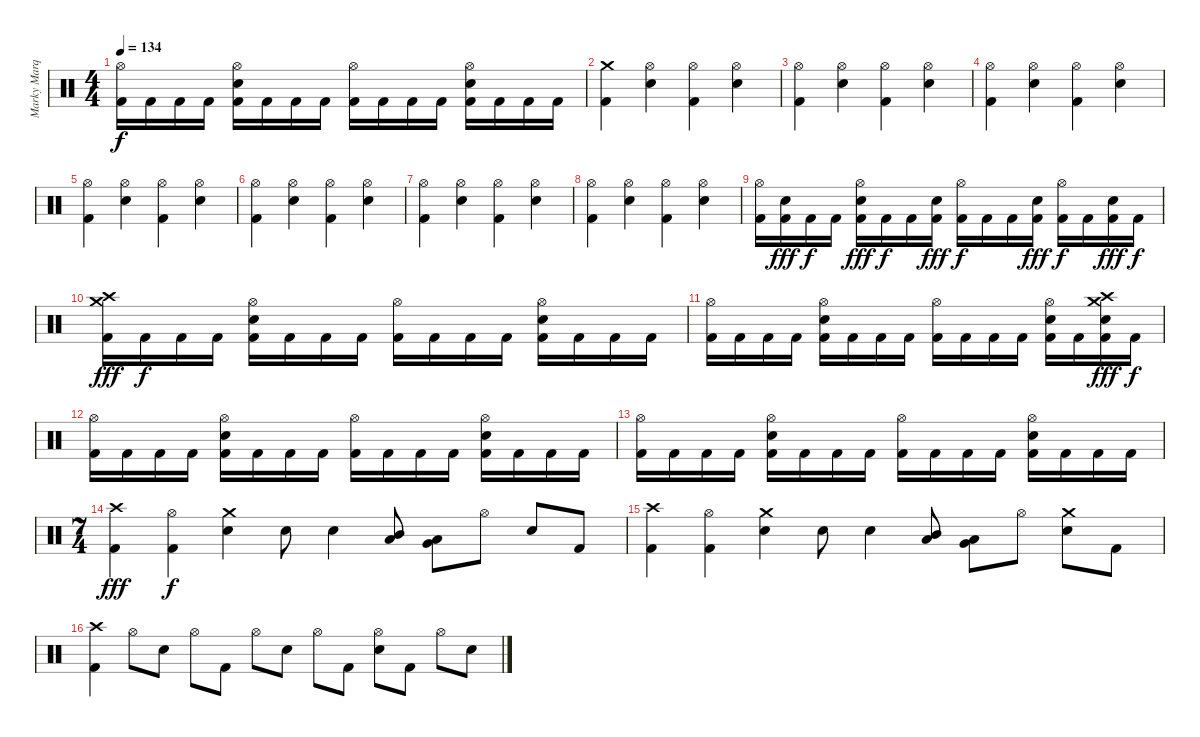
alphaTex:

\track ("Marky Marquis" "Marky Marq") {instrument percussion}
\staff {score}
\articulation defaults
\ts (4 4)
\tempo 134
\clef neutral
\ks c
("Hi-Hat (open)" "Kick (hit) 2").16{dy f} "Kick (hit) 2".16 "Kick (hit) 2".16 "Kick (hit) 2".16 ("Hi-Hat (open)" "Electric Snare (hit)" "Kick (hit) 2").16 "Kick (hit) 2".16 "Kick (hit) 2".16 "Kick (hit) 2".16 ("Hi-Hat (open)" "Kick (hit) 2").16 "Kick (hit) 2".16 "Kick (hit) 2".16 "Kick (hit) 2".16 ("Hi-Hat (open)" "Electric Snare (hit)" "Kick (hit) 2").16 "Kick (hit) 2".16 "Kick (hit) 2".16 "Kick (hit) 2".16 |
("Crash medium (hit)" "Kick (hit) 2").4 ("Hi-Hat (open)" "Electric Snare (hit)").4 ("Hi-Hat (open)" "Kick (hit) 2").4 ("Hi-Hat (open)" "Electric Snare (hit)").4 |
("Hi-Hat (open)" "Kick (hit) 2").4 ("Hi-Hat (open)" "Electric Snare (hit)").4 ("Hi-Hat (open)" "Kick (hit) 2").4 ("Hi-Hat (open)" "Electric Snare (hit)").4 |
("Hi-Hat (open)" "Kick (hit) 2").4 ("Hi-Hat (open)" "Electric Snare (hit)").4 ("Hi-Hat (open)" "Kick (hit) 2").4 ("Hi-Hat (open)" "Electric Snare (hit)").4 |
("Hi-Hat (open)" "Kick (hit) 2").4 ("Hi-Hat (open)" "Electric Snare (hit)").4 ("Hi-Hat (open)" "Kick (hit) 2").4 ("Hi-Hat (open)" "Electric Snare (hit)").4 |
("Hi-Hat (open)" "Kick (hit) 2").4 ("Hi-Hat (open)" "Electric Snare (hit)").4 ("Hi-Hat (open)" "Kick (hit) 2").4 ("Hi-Hat (open)" "Electric Snare (hit)").4 |
("Hi-Hat (open)" "Kick (hit) 2").4 ("Hi-Hat (open)" "Electric Snare (hit)").4 ("Hi-Hat (open)" "Kick (hit) 2").4 ("Hi-Hat (open)" "Electric Snare (hit)").4 |
("Hi-Hat (open)" "Kick (hit) 2").4 ("Hi-Hat (open)" "Electric Snare (hit)").4 ("Hi-Hat (open)" "Kick (hit) 2").4 ("Hi-Hat (open)" "Electric Snare (hit)").4 |
("Hi-Hat (open)" "Kick (hit) 2").16 ("Electric Snare (hit)" "Kick (hit) 2").16{dy fff} "Kick (hit) 2".16{dy f} "Kick (hit) 2".16 ("Hi-Hat (open)" "Electric Snare (hit)" "Kick (hit) 2").16{dy fff} "Kick (hit) 2".16{dy f} "Kick (hit) 2".16 ("Electric Snare (hit)" "Kick (hit) 2").16{dy fff} ("Hi-Hat (open)" "Kick (hit) 2").16{dy f} "Kick (hit) 2".16 "Kick (hit) 2".16 ("Electric Snare (hit)" "Kick (hit) 2").16{dy fff} ("Hi-Hat (open)" "Kick (hit) 2").16{dy f} "Kick (hit) 2".16 ("Electric Snare (hit)" "Kick (hit) 2").16{dy fff} "Kick (hit) 2".16{dy f} |
("Crash high (hit)" "Crash medium (hit)" "Kick (hit) 2").16{dy fff} "Kick (hit) 2".16{dy f} "Kick (hit) 2".16 "Kick (hit) 2".16 ("Hi-Hat (open)" "Electric Snare (hit)" "Kick (hit) 2").16 "Kick (hit) 2".16 "Kick (hit) 2".16 "Kick (hit) 2".16 ("Hi-Hat (open)" "Kick (hit) 2").16 "Kick (hit) 2".16 "Kick (hit) 2".16 "Kick (hit) 2".16 ("Hi-Hat (open)" "Electric Snare (hit)" "Kick (hit) 2").16 "Kick (hit) 2".16 "Kick (hit) 2".16 "Kick (hit) 2".16 |
("Hi-Hat (open)" "Kick (hit) 2").16 "Kick (hit) 2".16 "Kick (hit) 2".16 "Kick (hit) 2".16 ("Hi-Hat (open)" "Electric Snare (hit)" "Kick (hit) 2").16 "Kick (hit) 2".16 "Kick (hit) 2".16 "Kick (hit) 2".16 ("Hi-Hat (open)" "Kick (hit) 2").16 "Kick (hit) 2".16 "Kick (hit) 2".16 "Kick (hit) 2".16 ("Hi-Hat (open)" "Electric Snare (hit)" "Kick (hit) 2").16 "Kick (hit) 2".16 ("Crash high (hit)" "Crash medium (hit)" "Electric Snare (hit)" "Kick (hit) 2").16{dy fff} "Kick (hit) 2".16{dy f} |
("Hi-Hat (open)" "Kick (hit) 2").16 "Kick (hit) 2".16 "Kick (hit) 2".16 "Kick (hit) 2".16 ("Hi-Hat (open)" "Electric Snare (hit)" "Kick (hit) 2").16 "Kick (hit) 2".16 "Kick (hit) 2".16 "Kick (hit) 2".16 ("Hi-Hat (open)" "Kick (hit) 2").16 "Kick (hit) 2".16 "Kick (hit) 2".16 "Kick (hit) 2".16 ("Hi-Hat (open)" "Electric Snare (hit)" "Kick (hit) 2").16 "Kick (hit) 2".16 "Kick (hit) 2".16 "Kick (hit) 2".16 |
("Hi-Hat (open)" "Kick (hit) 2").16 "Kick (hit) 2".16 "Kick (hit) 2".16 "Kick (hit) 2".16 ("Hi-Hat (open)" "Electric Snare (hit)" "Kick (hit) 2").16 "Kick (hit) 2".16 "Kick (hit) 2".16 "Kick (hit) 2".16 ("Hi-Hat (open)" "Kick (hit) 2").16 "Kick (hit) 2".16 "Kick (hit) 2".16 "Kick (hit) 2".16 ("Hi-Hat (open)" "Electric Snare (hit)" "Kick (hit) 2").16 "Kick (hit) 2".16 "Kick (hit) 2".16 "Kick (hit) 2".16 |
\ts (7 4)
("Crash high (hit)" "Kick (hit) 2").4{dy fff} ("Hi-Hat (open)" "Kick (hit) 2").4{dy f} ("Crash medium (hit)" "Electric Snare (hit)").4 "Electric Snare (hit)".8 "Electric Snare (hit)".4 ("Mid Tom (hit)" "Low Tom (hit)").8 ("Low Tom (hit)" "Very Low Tom (hit)").8 "Hi-Hat (open)".8 "Electric Snare (hit)".8 "Kick (hit) 2".8 |
("Crash high (hit)" "Kick (hit) 2").4 ("Hi-Hat (open)" "Kick (hit) 2").4 ("Crash medium (hit)" "Electric Snare (hit)").4 "Electric Snare (hit)".8 "Electric Snare (hit)".4 ("Mid Tom (hit)" "Low Tom (hit)").8 ("Low Tom (hit)" "Very Low Tom (hit)").8 "Hi-Hat (open)".8 ("Crash medium (hit)" "Electric Snare (hit)").8 "Kick (hit) 2".8 |
("Crash high (hit)" "Kick (hit) 2").4 "Hi-Hat (open)".8 "Electric Snare (hit)".8 "Hi-Hat (open)".8 "Kick (hit) 2".8 "Hi-Hat (open)".8 "Electric Snare (hit)".8 "Hi-Hat (open)".8 "Kick (hit) 2".8 ("Hi-Hat (open)" "Electric Snare (hit)").8 "Kick (hit) 2".8 "Hi-Hat (open)".8 "Electric Snare (hit)".8
